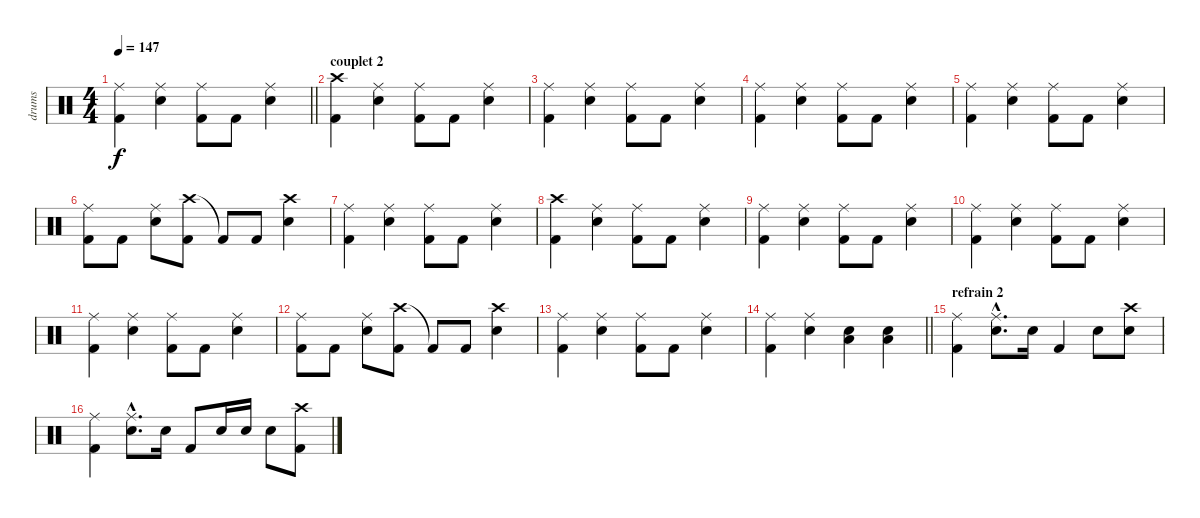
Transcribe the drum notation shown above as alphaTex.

\track ("drums" "drums") {instrument percussion}
\staff {score}
\articulation defaults
\ts (4 4)
\tempo 147
\clef neutral
\barLineRight lightlight
\ks c
("Ride (middle)" "Kick (hit) 2").4{dy f} ("Ride (middle)" "Snare (hit) 2").4 ("Ride (middle)" "Kick (hit) 2").8 "Kick (hit) 2".8 ("Ride (middle)" "Snare (hit) 2").4 |
\section ("" "couplet 2")
("Crash high (hit)" "Kick (hit) 2").4 ("Ride (middle)" "Snare (hit) 2").4 ("Ride (middle)" "Kick (hit) 2").8 "Kick (hit) 2".8 ("Ride (middle)" "Snare (hit) 2").4 |
("Ride (middle)" "Kick (hit) 2").4 ("Ride (middle)" "Snare (hit) 2").4 ("Ride (middle)" "Kick (hit) 2").8 "Kick (hit) 2".8 ("Ride (middle)" "Snare (hit) 2").4 |
("Ride (middle)" "Kick (hit) 2").4 ("Ride (middle)" "Snare (hit) 2").4 ("Ride (middle)" "Kick (hit) 2").8 "Kick (hit) 2".8 ("Ride (middle)" "Snare (hit) 2").4 |
("Ride (middle)" "Kick (hit) 2").4 ("Ride (middle)" "Snare (hit) 2").4 ("Ride (middle)" "Kick (hit) 2").8 "Kick (hit) 2".8 ("Ride (middle)" "Snare (hit) 2").4 |
("Ride (middle)" "Kick (hit) 2").8 "Kick (hit) 2".8 ("Ride (middle)" "Snare (hit) 2").8 ("Crash high (hit)" "Kick (hit) 2").8 "Kick (hit) 2"{t}.8 "Kick (hit) 2".8 ("Crash high (hit)" "Snare (hit) 2").4 |
("Ride (middle)" "Kick (hit) 2").4 ("Ride (middle)" "Snare (hit) 2").4 ("Ride (middle)" "Kick (hit) 2").8 "Kick (hit) 2".8 ("Ride (middle)" "Snare (hit) 2").4 |
("Crash high (hit)" "Kick (hit) 2").4 ("Ride (middle)" "Snare (hit) 2").4 ("Ride (middle)" "Kick (hit) 2").8 "Kick (hit) 2".8 ("Ride (middle)" "Snare (hit) 2").4 |
("Ride (middle)" "Kick (hit) 2").4 ("Ride (middle)" "Snare (hit) 2").4 ("Ride (middle)" "Kick (hit) 2").8 "Kick (hit) 2".8 ("Ride (middle)" "Snare (hit) 2").4 |
("Ride (middle)" "Kick (hit) 2").4 ("Ride (middle)" "Snare (hit) 2").4 ("Ride (middle)" "Kick (hit) 2").8 "Kick (hit) 2".8 ("Ride (middle)" "Snare (hit) 2").4 |
("Ride (middle)" "Kick (hit) 2").4 ("Ride (middle)" "Snare (hit) 2").4 ("Ride (middle)" "Kick (hit) 2").8 "Kick (hit) 2".8 ("Ride (middle)" "Snare (hit) 2").4 |
("Ride (middle)" "Kick (hit) 2").8 "Kick (hit) 2".8 ("Ride (middle)" "Snare (hit) 2").8 ("Crash high (hit)" "Kick (hit) 2").8 "Kick (hit) 2"{t}.8 "Kick (hit) 2".8 ("Crash high (hit)" "Snare (hit) 2").4 |
("Ride (middle)" "Kick (hit) 2").4 ("Ride (middle)" "Snare (hit) 2").4 ("Ride (middle)" "Kick (hit) 2").8 "Kick (hit) 2".8 ("Ride (middle)" "Snare (hit) 2").4 |
\barLineRight lightlight
("Ride (middle)" "Kick (hit) 2").4 ("Ride (middle)" "Snare (hit) 2").4 ("Low Floor Tom (hit)" "Snare (hit) 2").4 ("Low Floor Tom (hit)" "Snare (hit) 2").4 |
\section ("" "refrain 2")
("Ride (middle)" "Kick (hit) 2").4 ("Ride (middle)"{hac} "Snare (hit) 2"{hac}).8{d} "Snare (hit) 2".16 "Kick (hit) 2".4 "Snare (hit) 2".8 ("Crash high (hit)" "Snare (hit) 2").8 |
("Ride (middle)" "Kick (hit) 2").4 ("Ride (middle)"{hac} "Snare (hit) 2"{hac}).8{d} "Snare (hit) 2".16 "Kick (hit) 2".8 "Snare (hit) 2".16 "Snare (hit) 2".16 "Snare (hit) 2".8 ("Crash high (hit)" "Kick (hit) 2").8
